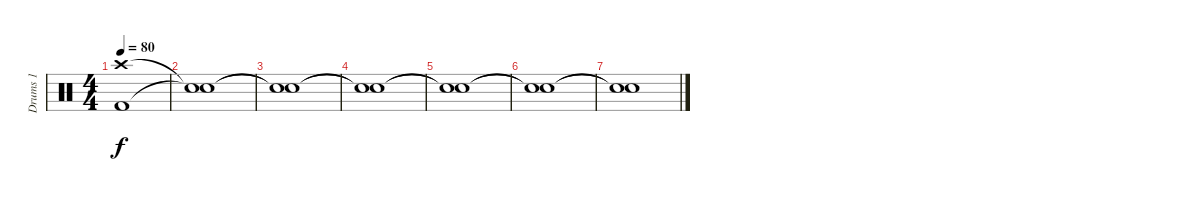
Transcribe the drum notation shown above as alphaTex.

\track ("Drums 1" "Drums 1") {instrument percussion}
\staff {score}
\articulation defaults
\ts (4 4)
\tempo 80
\clef neutral
\ks c
("Crash high (hit)" "Kick (hit) 2").1{dy f} |
("Snare (hit)"{t} "Snare (hit)"{t}).1 |
("Snare (hit)"{t} "Snare (hit)"{t}).1 |
("Snare (hit)"{t} "Snare (hit)"{t}).1 |
("Snare (hit)"{t} "Snare (hit)"{t}).1 |
("Snare (hit)"{t} "Snare (hit)"{t}).1 |
("Snare (hit)"{t} "Snare (hit)"{t}).1
